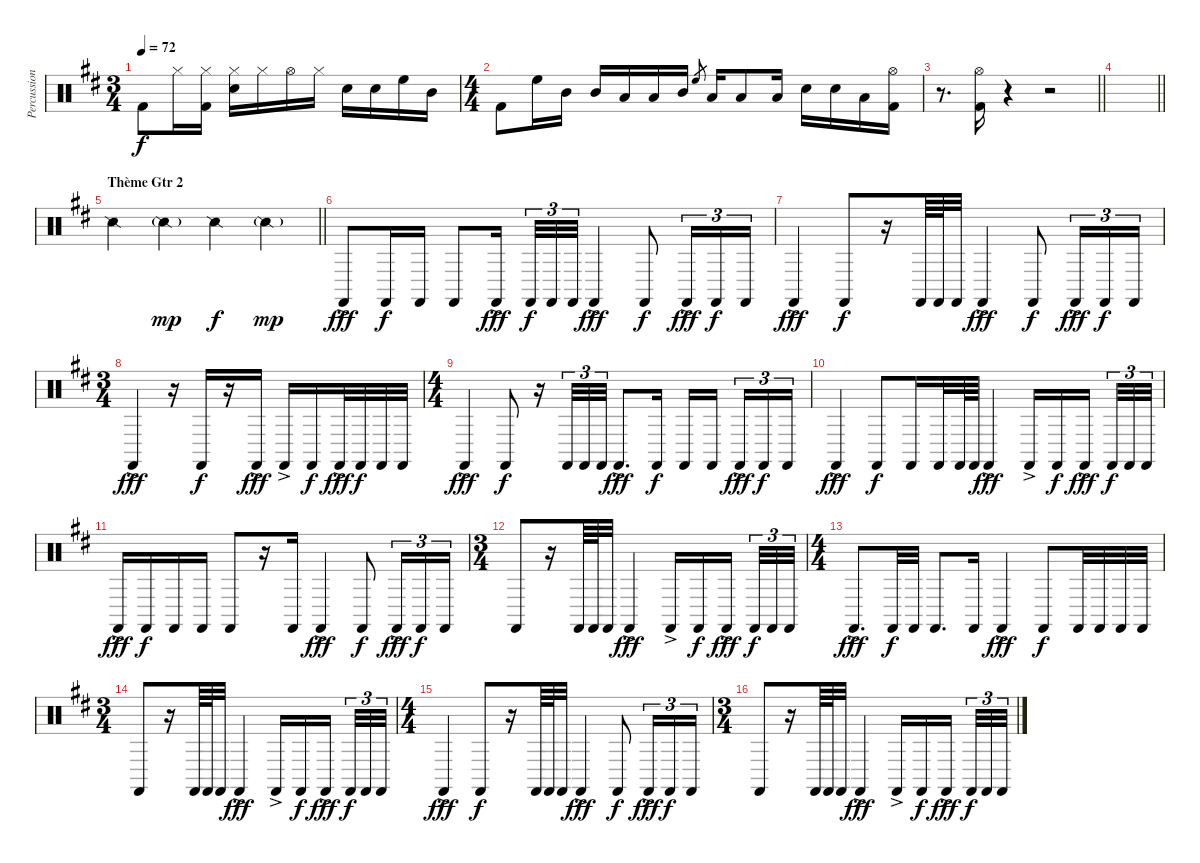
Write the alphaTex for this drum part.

\track ("Percussions" "Percussion") {instrument percussion}
\staff {score}
\articulation defaults
\ts (3 4)
\tempo 72
\clef neutral
\ks bminor "Kick (hit) 2".8{dy f} "Hi-Hat (closed)".16
("Hi-Hat (closed)" "Kick (hit) 2").16 ("Hi-Hat (closed)" "Snare (hit) 2").16 "Hi-Hat (closed)".16 "Hi-Hat (open)".16 "Hi-Hat (closed)".16 "Snare (hit) 2".16 "Snare (hit) 2".16 "High Floor Tom (hit)".16 "Mid Tom (hit)".16 |
\ts (4 4)
"Kick (hit) 2".8 "High Floor Tom (hit)".16 "Mid Tom (hit)".16 "Mid Tom (hit)".16 "Low Tom (hit)".16 "Low Tom (hit)".16 "Mid Tom (hit)".16 "High Floor Tom (hit)".8{gr} "Low Tom (hit)".16 "Low Floor Tom (hit)".8 "Low Floor Tom (hit)".16 "Snare (hit) 2".16 "Snare (hit) 2".16 "Low Tom (hit)".16 ("Hi-Hat (open)" "Kick (hit) 2").16 |
\barLineRight lightlight
r.8{d} ("Hi-Hat (open)" "Kick (hit) 2").16 r.4 r.2 |
\barLineRight lightlight
|
\section ("" "Thème Gtr 2")
\barLineRight lightlight "Snare (side stick) 2".4 "Snare (side stick) 2"{g}.4{dy mp} "Snare (side stick) 2".4{dy f} "Snare (side stick) 2"{g}.4{dy mp}
|
"Castanets (hit)"{ac}.8{dy fff volume 9} "Castanets (hit)".16{dy f} "Castanets (hit)".16 "Castanets (hit)".8 "Castanets (hit)"{ac}.16{dy fff} "Castanets (hit)".32{tu (3 2) dy f} "Castanets (hit)".32{tu (3 2)} "Castanets (hit)".32{tu (3 2)} "Castanets (hit)"{ac}.4{dy fff} "Castanets (hit)".8{dy f} "Castanets (hit)"{ac}.16{tu (3 2) dy fff} "Castanets (hit)".16{tu (3 2) dy f} "Castanets (hit)".16{tu (3 2)} |
"Castanets (hit)"{ac}.4{dy fff} "Castanets (hit)".8{dy f} r.16 "Castanets (hit)".64 "Castanets (hit)".64 "Castanets (hit)".32 "Castanets (hit)"{ac}.4{dy fff} "Castanets (hit)".8{dy f} "Castanets (hit)"{ac}.16{tu (3 2) dy fff} "Castanets (hit)".16{tu (3 2) dy f} "Castanets (hit)".16{tu (3 2)} |
\ts (3 4)
"Castanets (hit)"{ac}.4{dy fff} r.16 "Castanets (hit)".16{dy f} r.16 "Castanets (hit)"{ac}.16{dy fff} "Castanets (hit)"{ac}.16 "Castanets (hit)".16{dy f} "Castanets (hit)"{ac}.32{dy fff} "Castanets (hit)".32{dy f} "Castanets (hit)".32 "Castanets (hit)".32 |
\ts (4 4)
"Castanets (hit)"{ac}.4{dy fff} "Castanets (hit)".8{dy f} r.16 "Castanets (hit)".32{tu (3 2)} "Castanets (hit)".32{tu (3 2)} "Castanets (hit)".32{tu (3 2)} "Castanets (hit)"{ac}.8{d dy fff} "Castanets (hit)".16{dy f} "Castanets (hit)".16 "Castanets (hit)".16 "Castanets (hit)"{ac}.16{tu (3 2) dy fff} "Castanets (hit)".16{tu (3 2) dy f} "Castanets (hit)".16{tu (3 2)} |
"Castanets (hit)"{ac}.4{dy fff} "Castanets (hit)".8{dy f} "Castanets (hit)".16 "Castanets (hit)".32 "Castanets (hit)".64 "Castanets (hit)".64 "Castanets (hit)"{ac}.4{dy fff} "Castanets (hit)"{ac}.16 "Castanets (hit)".16{dy f} "Castanets (hit)"{ac}.16{dy fff} "Castanets (hit)".32{tu (3 2) dy f} "Castanets (hit)".32{tu (3 2)} "Castanets (hit)".32{tu (3 2)} |
"Castanets (hit)"{ac}.16{dy fff} "Castanets (hit)".16{dy f} "Castanets (hit)".16 "Castanets (hit)".16 "Castanets (hit)".8 r.16 "Castanets (hit)".16 "Castanets (hit)"{ac}.4{dy fff} "Castanets (hit)".8{dy f} "Castanets (hit)"{ac}.16{tu (3 2) dy fff} "Castanets (hit)".16{tu (3 2) dy f} "Castanets (hit)".16{tu (3 2)} |
\ts (3 4)
"Castanets (hit)".8 r.16 "Castanets (hit)".64 "Castanets (hit)".64 "Castanets (hit)".32 "Castanets (hit)"{ac}.4{dy fff} "Castanets (hit)"{ac}.16 "Castanets (hit)".16{dy f} "Castanets (hit)"{ac}.16{dy fff} "Castanets (hit)".32{tu (3 2) dy f} "Castanets (hit)".32{tu (3 2)} "Castanets (hit)".32{tu (3 2)} |
\ts (4 4)
"Castanets (hit)"{ac}.8{d dy fff} "Castanets (hit)".32{dy f} "Castanets (hit)".32 "Castanets (hit)".8{d} "Castanets (hit)".16 "Castanets (hit)"{ac}.4{dy fff} "Castanets (hit)".8{dy f} "Castanets (hit)".32 "Castanets (hit)".32 "Castanets (hit)".32 "Castanets (hit)".32 |
\ts (3 4)
"Castanets (hit)".8 r.16 "Castanets (hit)".64 "Castanets (hit)".64 "Castanets (hit)".32 "Castanets (hit)"{ac}.4{dy fff} "Castanets (hit)"{ac}.16 "Castanets (hit)".16{dy f} "Castanets (hit)"{ac}.16{dy fff} "Castanets (hit)".32{tu (3 2) dy f} "Castanets (hit)".32{tu (3 2)} "Castanets (hit)".32{tu (3 2)} |
\ts (4 4)
"Castanets (hit)"{ac}.4{dy fff} "Castanets (hit)".8{dy f} r.16 "Castanets (hit)".64 "Castanets (hit)".64 "Castanets (hit)".32 "Castanets (hit)"{ac}.4{dy fff} "Castanets (hit)".8{dy f} "Castanets (hit)"{ac}.16{tu (3 2) dy fff} "Castanets (hit)".16{tu (3 2) dy f} "Castanets (hit)".16{tu (3 2)} |
\ts (3 4)
"Castanets (hit)".8 r.16 "Castanets (hit)".64 "Castanets (hit)".64 "Castanets (hit)".32 "Castanets (hit)"{ac}.4{dy fff} "Castanets (hit)"{ac}.16 "Castanets (hit)".16{dy f} "Castanets (hit)"{ac}.16{dy fff} "Castanets (hit)".32{tu (3 2) dy f} "Castanets (hit)".32{tu (3 2)} "Castanets (hit)".32{tu (3 2)}
